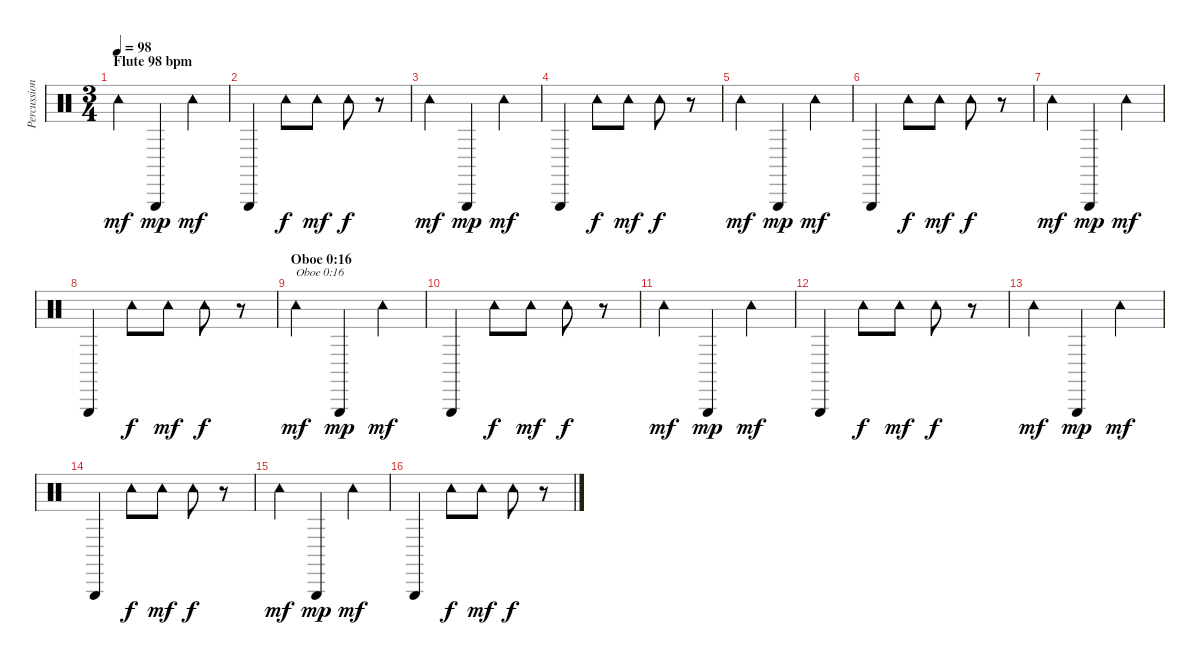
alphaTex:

\track ("Percussion" "Percussion") {instrument percussion}
\staff {score}
\articulation defaults
\ts (3 4)
\section ("" "Flute 98 bpm")
\tempo 98
\clef neutral
\ks c "Tambourine (hit)".4{dy mf} "Triangle (hit)".4{dy mp} "Tambourine (hit)".4{dy mf}
|
"Triangle (hit)".4 "Tambourine (hit)".8{dy f} "Tambourine (hit)".8{dy mf} "Tambourine (hit)".8{dy f} r.8 |
"Tambourine (hit)".4{dy mf} "Triangle (hit)".4{dy mp} "Tambourine (hit)".4{dy mf} |
"Triangle (hit)".4 "Tambourine (hit)".8{dy f} "Tambourine (hit)".8{dy mf} "Tambourine (hit)".8{dy f} r.8 |
"Tambourine (hit)".4{dy mf} "Triangle (hit)".4{dy mp} "Tambourine (hit)".4{dy mf} |
"Triangle (hit)".4 "Tambourine (hit)".8{dy f} "Tambourine (hit)".8{dy mf} "Tambourine (hit)".8{dy f} r.8 |
"Tambourine (hit)".4{dy mf} "Triangle (hit)".4{dy mp} "Tambourine (hit)".4{dy mf} |
"Triangle (hit)".4 "Tambourine (hit)".8{dy f} "Tambourine (hit)".8{dy mf} "Tambourine (hit)".8{dy f} r.8 |
\section ("" "Oboe 0:16")
"Tambourine (hit)".4{txt "Oboe 0:16" dy mf} "Triangle (hit)".4{dy mp} "Tambourine (hit)".4{dy mf} |
"Triangle (hit)".4 "Tambourine (hit)".8{dy f} "Tambourine (hit)".8{dy mf} "Tambourine (hit)".8{dy f} r.8 |
"Tambourine (hit)".4{dy mf} "Triangle (hit)".4{dy mp} "Tambourine (hit)".4{dy mf} |
"Triangle (hit)".4 "Tambourine (hit)".8{dy f} "Tambourine (hit)".8{dy mf} "Tambourine (hit)".8{dy f} r.8 |
"Tambourine (hit)".4{dy mf} "Triangle (hit)".4{dy mp} "Tambourine (hit)".4{dy mf} |
"Triangle (hit)".4 "Tambourine (hit)".8{dy f} "Tambourine (hit)".8{dy mf} "Tambourine (hit)".8{dy f} r.8 |
"Tambourine (hit)".4{dy mf} "Triangle (hit)".4{dy mp} "Tambourine (hit)".4{dy mf} |
"Triangle (hit)".4 "Tambourine (hit)".8{dy f} "Tambourine (hit)".8{dy mf} "Tambourine (hit)".8{dy f} r.8
